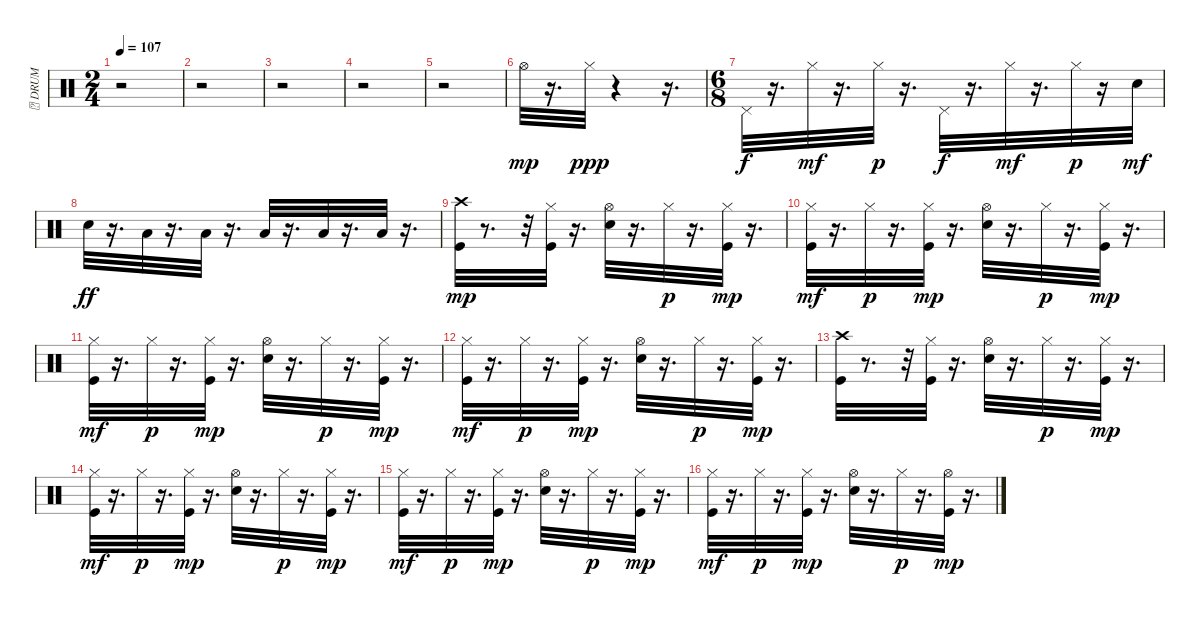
\track ("\t DRUM" "\t DRUM") {instrument percussion}
\staff {score}
\articulation defaults
\ts (2 4)
\tempo 107
\clef neutral
\ks c
r.2{dy mp} |
r.2 |
r.2 |
r.2 |
r.2 |
"Hi-Hat (open)".32 r.16{d} "Hi-Hat (closed)".32{dy ppp} r.4 r.16{d} |
\ts (6 8)
"Pedal Hi-Hat (hit)".32{dy f} r.16{d} "Hi-Hat (closed)".32{dy mf} r.16{d} "Hi-Hat (closed)".32{dy p} r.16{d} "Pedal Hi-Hat (hit)".32{dy f} r.16{d} "Hi-Hat (closed)".32{dy mf} r.16{d} "Hi-Hat (closed)".32{dy p} r.16 "Electric Snare (hit)".32{dy mf} |
"Electric Snare (hit)".32{dy ff} r.16{d} "Low Tom (hit)".32 r.16{d} "Low Tom (hit)".32 r.16{d} "Low Floor Tom (hit)".32 r.16{d} "Low Floor Tom (hit)".32 r.16{d} "Low Floor Tom (hit)".32 r.16{d} |
("Kick (hit)" "Crash high (hit)").32{dy mp} r.8{d} r.32 ("Kick (hit)" "Hi-Hat (closed)").32 r.16{d} ("Electric Snare (hit)" "Hi-Hat (open)").32 r.16{d} "Hi-Hat (closed)".32{dy p} r.16{d} ("Kick (hit)" "Hi-Hat (closed)").32{dy mp} r.16{d} |
("Kick (hit)" "Hi-Hat (closed)").32{dy mf} r.16{d} "Hi-Hat (closed)".32{dy p} r.16{d} ("Kick (hit)" "Hi-Hat (closed)").32{dy mp} r.16{d} ("Electric Snare (hit)" "Hi-Hat (open)").32 r.16{d} "Hi-Hat (closed)".32{dy p} r.16{d} ("Kick (hit)" "Hi-Hat (closed)").32{dy mp} r.16{d} |
("Kick (hit)" "Hi-Hat (closed)").32{dy mf} r.16{d} "Hi-Hat (closed)".32{dy p} r.16{d} ("Kick (hit)" "Hi-Hat (closed)").32{dy mp} r.16{d} ("Electric Snare (hit)" "Hi-Hat (open)").32 r.16{d} "Hi-Hat (closed)".32{dy p} r.16{d} ("Kick (hit)" "Hi-Hat (closed)").32{dy mp} r.16{d} |
("Kick (hit)" "Hi-Hat (closed)").32{dy mf} r.16{d} "Hi-Hat (closed)".32{dy p} r.16{d} ("Kick (hit)" "Hi-Hat (closed)").32{dy mp} r.16{d} ("Electric Snare (hit)" "Hi-Hat (open)").32 r.16{d} "Hi-Hat (closed)".32{dy p} r.16{d} ("Kick (hit)" "Hi-Hat (closed)").32{dy mp} r.16{d} |
("Kick (hit)" "Crash high (hit)").32 r.8{d} r.32 ("Kick (hit)" "Hi-Hat (closed)").32 r.16{d} ("Electric Snare (hit)" "Hi-Hat (open)").32 r.16{d} "Hi-Hat (closed)".32{dy p} r.16{d} ("Kick (hit)" "Hi-Hat (closed)").32{dy mp} r.16{d} |
("Kick (hit)" "Hi-Hat (closed)").32{dy mf} r.16{d} "Hi-Hat (closed)".32{dy p} r.16{d} ("Kick (hit)" "Hi-Hat (closed)").32{dy mp} r.16{d} ("Electric Snare (hit)" "Hi-Hat (open)").32 r.16{d} "Hi-Hat (closed)".32{dy p} r.16{d} ("Kick (hit)" "Hi-Hat (closed)").32{dy mp} r.16{d} |
("Kick (hit)" "Hi-Hat (closed)").32{dy mf} r.16{d} "Hi-Hat (closed)".32{dy p} r.16{d} ("Kick (hit)" "Hi-Hat (closed)").32{dy mp} r.16{d} ("Electric Snare (hit)" "Hi-Hat (open)").32 r.16{d} "Hi-Hat (closed)".32{dy p} r.16{d} ("Kick (hit)" "Hi-Hat (closed)").32{dy mp} r.16{d} |
("Kick (hit)" "Hi-Hat (closed)").32{dy mf} r.16{d} "Hi-Hat (closed)".32{dy p} r.16{d} ("Kick (hit)" "Hi-Hat (closed)").32{dy mp} r.16{d} ("Electric Snare (hit)" "Hi-Hat (open)").32 r.16{d} "Hi-Hat (closed)".32{dy p} r.16{d} ("Kick (hit)" "Hi-Hat (open)").32{dy mp} r.16{d}
